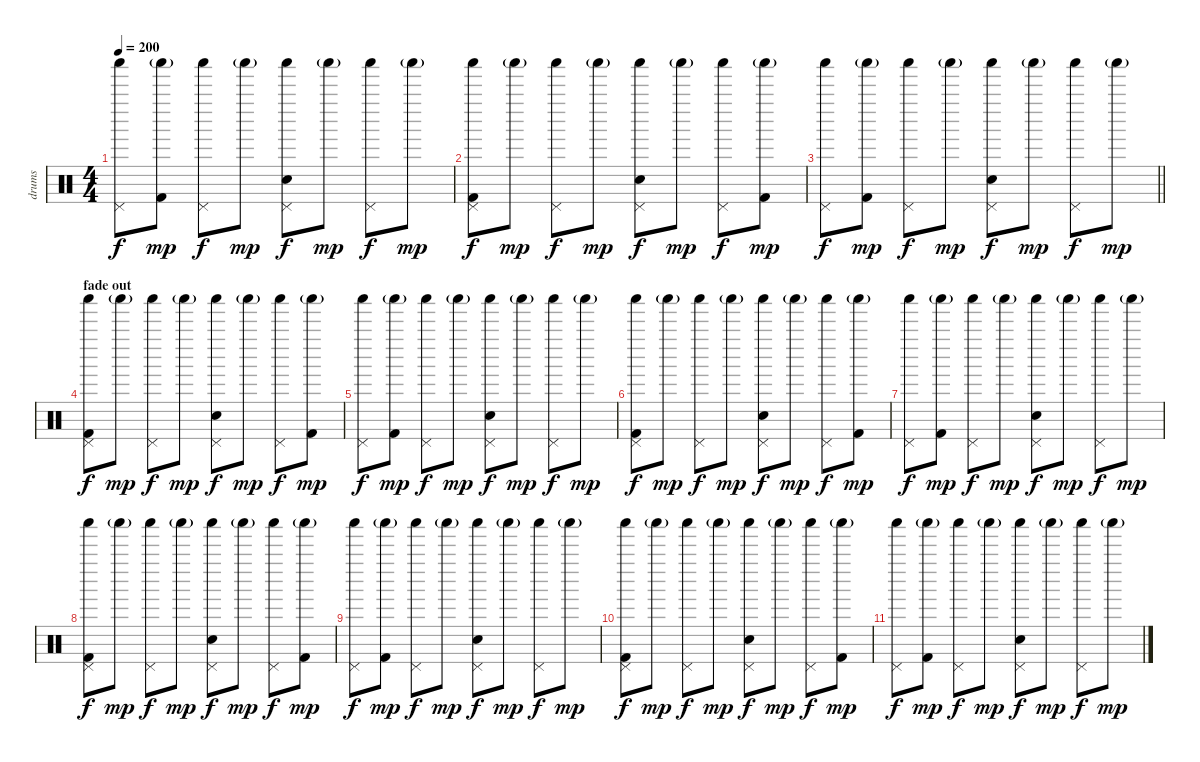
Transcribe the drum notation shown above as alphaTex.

\track ("drums" "drums") {instrument percussion}
\staff {score}
\articulation defaults
\ts (4 4)
\tempo 200
\clef neutral
\ks c
("Shaker (hit)" "Pedal Hi-Hat (hit)").8{dy f} ("Kick (hit) 2" "Shaker (hit)"{g}).8{dy mp} ("Shaker (hit)" "Pedal Hi-Hat (hit)").8{dy f} "Shaker (hit)"{g}.8{dy mp} ("Electric Snare (hit)" "Shaker (hit)" "Pedal Hi-Hat (hit)").8{dy f} "Shaker (hit)"{g}.8{dy mp} ("Shaker (hit)" "Pedal Hi-Hat (hit)").8{dy f} "Shaker (hit)"{g}.8{dy mp} |
("Kick (hit) 2" "Shaker (hit)" "Pedal Hi-Hat (hit)").8{dy f} "Shaker (hit)"{g}.8{dy mp} ("Shaker (hit)" "Pedal Hi-Hat (hit)").8{dy f} "Shaker (hit)"{g}.8{dy mp} ("Electric Snare (hit)" "Shaker (hit)" "Pedal Hi-Hat (hit)").8{dy f} "Shaker (hit)"{g}.8{dy mp} ("Shaker (hit)" "Pedal Hi-Hat (hit)").8{dy f} ("Kick (hit) 2" "Shaker (hit)"{g}).8{dy mp} |
\barLineRight lightlight
("Shaker (hit)" "Pedal Hi-Hat (hit)").8{dy f} ("Kick (hit) 2" "Shaker (hit)"{g}).8{dy mp} ("Shaker (hit)" "Pedal Hi-Hat (hit)").8{dy f} "Shaker (hit)"{g}.8{dy mp} ("Electric Snare (hit)" "Shaker (hit)" "Pedal Hi-Hat (hit)").8{dy f} "Shaker (hit)"{g}.8{dy mp} ("Shaker (hit)" "Pedal Hi-Hat (hit)").8{dy f} "Shaker (hit)"{g}.8{dy mp} |
\section ("" "fade out")
("Kick (hit) 2" "Shaker (hit)" "Pedal Hi-Hat (hit)").8{dy f} "Shaker (hit)"{g}.8{dy mp} ("Shaker (hit)" "Pedal Hi-Hat (hit)").8{dy f} "Shaker (hit)"{g}.8{dy mp} ("Electric Snare (hit)" "Shaker (hit)" "Pedal Hi-Hat (hit)").8{dy f} "Shaker (hit)"{g}.8{dy mp} ("Shaker (hit)" "Pedal Hi-Hat (hit)").8{dy f} ("Kick (hit) 2" "Shaker (hit)"{g}).8{dy mp} |
("Shaker (hit)" "Pedal Hi-Hat (hit)").8{dy f} ("Kick (hit) 2" "Shaker (hit)"{g}).8{dy mp} ("Shaker (hit)" "Pedal Hi-Hat (hit)").8{dy f} "Shaker (hit)"{g}.8{dy mp} ("Electric Snare (hit)" "Shaker (hit)" "Pedal Hi-Hat (hit)").8{dy f} "Shaker (hit)"{g}.8{dy mp} ("Shaker (hit)" "Pedal Hi-Hat (hit)").8{dy f} "Shaker (hit)"{g}.8{dy mp} |
("Kick (hit) 2" "Shaker (hit)" "Pedal Hi-Hat (hit)").8{dy f} "Shaker (hit)"{g}.8{dy mp} ("Shaker (hit)" "Pedal Hi-Hat (hit)").8{dy f} "Shaker (hit)"{g}.8{dy mp} ("Electric Snare (hit)" "Shaker (hit)" "Pedal Hi-Hat (hit)").8{dy f} "Shaker (hit)"{g}.8{dy mp} ("Shaker (hit)" "Pedal Hi-Hat (hit)").8{dy f} ("Kick (hit) 2" "Shaker (hit)"{g}).8{dy mp} |
("Shaker (hit)" "Pedal Hi-Hat (hit)").8{dy f} ("Kick (hit) 2" "Shaker (hit)"{g}).8{dy mp} ("Shaker (hit)" "Pedal Hi-Hat (hit)").8{dy f} "Shaker (hit)"{g}.8{dy mp} ("Electric Snare (hit)" "Shaker (hit)" "Pedal Hi-Hat (hit)").8{dy f} "Shaker (hit)"{g}.8{dy mp} ("Shaker (hit)" "Pedal Hi-Hat (hit)").8{dy f} "Shaker (hit)"{g}.8{dy mp} |
("Kick (hit) 2" "Shaker (hit)" "Pedal Hi-Hat (hit)").8{dy f} "Shaker (hit)"{g}.8{dy mp} ("Shaker (hit)" "Pedal Hi-Hat (hit)").8{dy f} "Shaker (hit)"{g}.8{dy mp} ("Electric Snare (hit)" "Shaker (hit)" "Pedal Hi-Hat (hit)").8{dy f} "Shaker (hit)"{g}.8{dy mp} ("Shaker (hit)" "Pedal Hi-Hat (hit)").8{dy f} ("Kick (hit) 2" "Shaker (hit)"{g}).8{dy mp} |
("Shaker (hit)" "Pedal Hi-Hat (hit)").8{dy f} ("Kick (hit) 2" "Shaker (hit)"{g}).8{dy mp} ("Shaker (hit)" "Pedal Hi-Hat (hit)").8{dy f} "Shaker (hit)"{g}.8{dy mp} ("Electric Snare (hit)" "Shaker (hit)" "Pedal Hi-Hat (hit)").8{dy f} "Shaker (hit)"{g}.8{dy mp} ("Shaker (hit)" "Pedal Hi-Hat (hit)").8{dy f} "Shaker (hit)"{g}.8{dy mp} |
("Kick (hit) 2" "Shaker (hit)" "Pedal Hi-Hat (hit)").8{dy f} "Shaker (hit)"{g}.8{dy mp} ("Shaker (hit)" "Pedal Hi-Hat (hit)").8{dy f} "Shaker (hit)"{g}.8{dy mp} ("Electric Snare (hit)" "Shaker (hit)" "Pedal Hi-Hat (hit)").8{dy f} "Shaker (hit)"{g}.8{dy mp} ("Shaker (hit)" "Pedal Hi-Hat (hit)").8{dy f} ("Kick (hit) 2" "Shaker (hit)"{g}).8{dy mp} |
("Shaker (hit)" "Pedal Hi-Hat (hit)").8{dy f} ("Kick (hit) 2" "Shaker (hit)"{g}).8{dy mp} ("Shaker (hit)" "Pedal Hi-Hat (hit)").8{dy f} "Shaker (hit)"{g}.8{dy mp} ("Electric Snare (hit)" "Shaker (hit)" "Pedal Hi-Hat (hit)").8{dy f} "Shaker (hit)"{g}.8{dy mp} ("Shaker (hit)" "Pedal Hi-Hat (hit)").8{dy f} "Shaker (hit)"{g}.8{dy mp}
